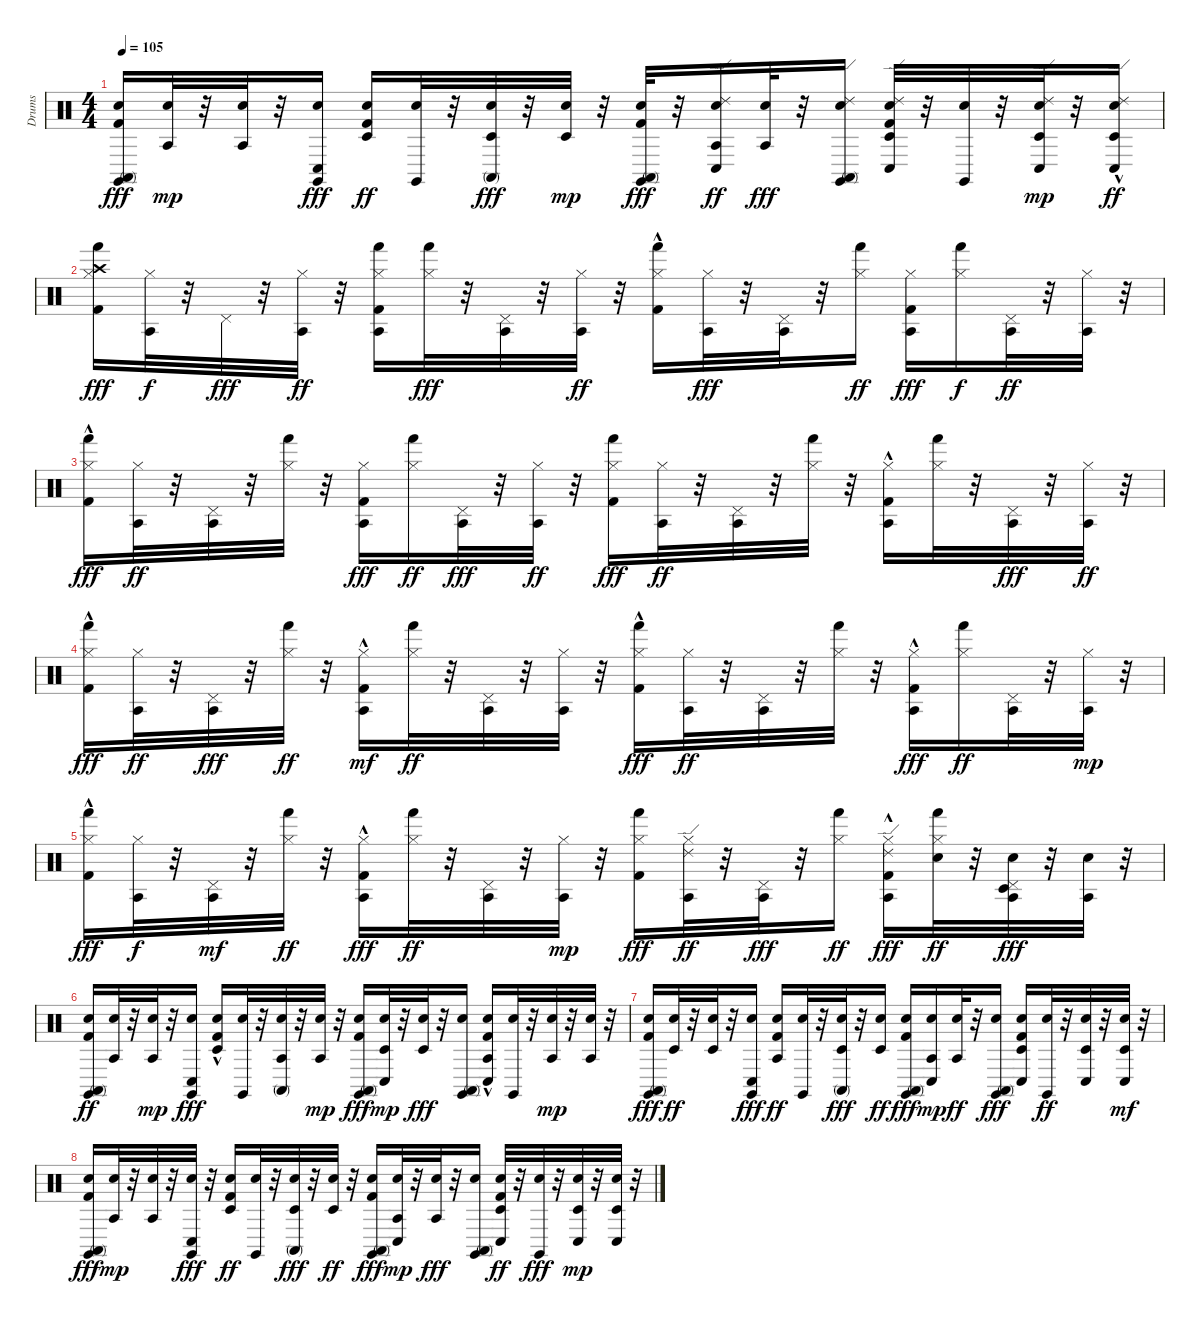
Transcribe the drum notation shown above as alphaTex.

\track ("Drums" "Drums") {instrument percussion}
\staff {score}
\articulation defaults
\ts (4 4)
\tempo 105
\clef neutral
\ks c
("Kick (hit) 2" "Snare (hit) 2" "Conga high (mute)" "Claves (hit)").16{dy fff} ("Agogo tow (hit)" "Snare (hit) 2").32{dy mp} r.32 ("Agogo tow (hit)" "Snare (hit) 2").32 r.32 ("Conga low (hit)" "Snare (hit) 2" "Claves (hit)").16{dy fff} ("Snare (hit) 2" "Kick (hit) 2" "Timbale low (hit)").16{dy ff} ("Snare (hit) 2" "Claves (hit)").32 r.32 ("Conga high (mute)" "Timbale low (hit)" "Snare (hit) 2").32{dy fff} r.32 ("Timbale low (hit)" "Snare (hit) 2").32{dy mp} r.32 ("Snare (hit) 2" "Kick (hit) 2" "Conga high (mute)" "Claves (hit)").32{dy fff} r.32 ("Ride (edge) 2" "Agogo tow (hit)" "Snare (hit) 2" "Conga low (hit)").16{dy ff} ("Agogo tow (hit)" "Snare (hit) 2").32{dy fff} r.32 ("Ride (edge) 2" "Conga high (mute)" "Snare (hit) 2" "Claves (hit)").16 ("Ride (edge) 2" "Timbale low (hit)" "Kick (hit) 2" "Snare (hit) 2" "Conga low (hit)").32 r.32 ("Snare (hit) 2" "Claves (hit)").32 r.32 ("Ride (edge) 2" "Conga low (hit)" "Timbale low (hit)" "Snare (hit) 2").32{dy mp} r.32 ("Ride (edge) 2" "Conga low (hit)" "Snare (hit) 2"{hac} "Timbale low (hit)").16{dy ff} |
("Kick (hit) 2" "Crash high (hit)" "Hi-Hat (closed)" "Hand (hit)").16{dy fff} ("Hi-Hat (closed)" "Agogo tow (hit)").32{dy f} r.32 "Pedal Hi-Hat (hit)".32{dy fff} r.32 ("Agogo tow (hit)" "Hi-Hat (closed)").32{dy ff} r.32 ("Hand (hit)" "Kick (hit) 2" "Hi-Hat (closed)" "Agogo tow (hit)").16 ("Hi-Hat (closed)" "Hand (hit)").32{dy fff} r.32 ("Pedal Hi-Hat (hit)" "Agogo tow (hit)").32 r.32 ("Hi-Hat (closed)" "Agogo tow (hit)").32{dy ff} r.32 ("Hand (hit)" "Kick (hit) 2"{hac} "Hi-Hat (closed)").16 ("Agogo tow (hit)" "Hi-Hat (closed)").32{dy fff} r.32 ("Agogo tow (hit)" "Pedal Hi-Hat (hit)").32 r.32 ("Hand (hit)" "Hi-Hat (closed)").16{dy ff} ("Agogo tow (hit)" "Kick (hit) 2" "Hi-Hat (closed)").16{dy fff} ("Hand (hit)" "Hi-Hat (closed)").16{dy f} ("Agogo tow (hit)" "Pedal Hi-Hat (hit)").32{dy ff} r.32 ("Agogo tow (hit)" "Hi-Hat (closed)").32 r.32 |
("Hand (hit)" "Hi-Hat (closed)" "Kick (hit) 2"{hac}).16{dy fff} ("Agogo tow (hit)" "Hi-Hat (closed)").32{dy ff} r.32 ("Agogo tow (hit)" "Pedal Hi-Hat (hit)").32 r.32 ("Hi-Hat (closed)" "Hand (hit)").32 r.32 ("Agogo tow (hit)" "Hi-Hat (closed)" "Kick (hit) 2").16{dy fff} ("Hand (hit)" "Hi-Hat (closed)").16{dy ff} ("Agogo tow (hit)" "Pedal Hi-Hat (hit)").32{dy fff} r.32 ("Agogo tow (hit)" "Hi-Hat (closed)").32{dy ff} r.32 ("Hand (hit)" "Kick (hit) 2" "Hi-Hat (closed)").16{dy fff} ("Agogo tow (hit)" "Hi-Hat (closed)").32{dy ff} r.32 ("Agogo tow (hit)" "Pedal Hi-Hat (hit)").32 r.32 ("Hi-Hat (closed)" "Hand (hit)").32 r.32 ("Agogo tow (hit)" "Kick (hit) 2"{hac} "Hi-Hat (closed)").16 ("Hand (hit)" "Hi-Hat (closed)").32 r.32 ("Agogo tow (hit)" "Pedal Hi-Hat (hit)").32{dy fff} r.32 ("Agogo tow (hit)" "Hi-Hat (closed)").32{dy ff} r.32 |
("Hand (hit)" "Hi-Hat (closed)" "Kick (hit) 2"{hac}).16{dy fff} ("Agogo tow (hit)" "Hi-Hat (closed)").32{dy ff} r.32 ("Agogo tow (hit)" "Pedal Hi-Hat (hit)").32{dy fff} r.32 ("Hi-Hat (closed)" "Hand (hit)").32{dy ff} r.32 ("Hi-Hat (closed)" "Kick (hit) 2"{hac} "Agogo tow (hit)").16{dy mf} ("Hi-Hat (closed)" "Hand (hit)").32{dy ff} r.32 ("Agogo tow (hit)" "Pedal Hi-Hat (hit)").32 r.32 ("Agogo tow (hit)" "Hi-Hat (closed)").32 r.32 ("Hand (hit)" "Hi-Hat (closed)" "Kick (hit) 2"{hac}).16{dy fff} ("Agogo tow (hit)" "Hi-Hat (closed)").32{dy ff} r.32 ("Agogo tow (hit)" "Pedal Hi-Hat (hit)").32 r.32 ("Hand (hit)" "Hi-Hat (closed)").32 r.32 ("Hi-Hat (closed)" "Kick (hit) 2"{hac} "Agogo tow (hit)").16{dy fff} ("Hand (hit)" "Hi-Hat (closed)").16{dy ff} ("Agogo tow (hit)" "Pedal Hi-Hat (hit)").32 r.32 ("Agogo tow (hit)" "Hi-Hat (closed)").32{dy mp} r.32 |
("Hand (hit)" "Hi-Hat (closed)" "Kick (hit) 2"{hac}).16{dy fff} ("Agogo tow (hit)" "Hi-Hat (closed)").32{dy f} r.32 ("Pedal Hi-Hat (hit)" "Agogo tow (hit)").32{dy mf} r.32 ("Hi-Hat (closed)" "Hand (hit)").32{dy ff} r.32 ("Agogo tow (hit)" "Hi-Hat (closed)" "Kick (hit) 2"{hac}).16{dy fff} ("Hi-Hat (closed)" "Hand (hit)").32{dy ff} r.32 ("Agogo tow (hit)" "Pedal Hi-Hat (hit)").32 r.32 ("Agogo tow (hit)" "Hi-Hat (closed)").32{dy mp} r.32 ("Hand (hit)" "Hi-Hat (closed)" "Kick (hit) 2").16{dy fff} ("Ride (edge) 2" "Agogo tow (hit)" "Hi-Hat (closed)").32{dy ff} r.32 ("Pedal Hi-Hat (hit)" "Agogo tow (hit)").32{dy fff} r.32 ("Hand (hit)" "Hi-Hat (closed)").16{dy ff} ("Ride (edge) 2" "Agogo tow (hit)" "Hi-Hat (closed)" "Kick (hit) 2"{hac}).16{dy fff} ("Hand (hit)" "Snare (hit) 2" "Hi-Hat (closed)").32{dy ff} r.32 ("Timbale low (hit)" "Agogo tow (hit)" "Snare (hit) 2" "Pedal Hi-Hat (hit)").32{dy fff} r.32 ("Agogo tow (hit)" "Snare (hit) 2").32 r.32 |
("Conga high (mute)" "Snare (hit) 2" "Kick (hit) 2" "Claves (hit)").16{dy ff} ("Snare (hit) 2" "Agogo tow (hit)").32 r.32 ("Snare (hit) 2" "Agogo tow (hit)").32{dy mp} r.32 ("Snare (hit) 2" "Conga low (hit)" "Claves (hit)").16{dy fff} ("Timbale low (hit)" "Snare (hit) 2" "Kick (hit) 2"{hac}).16 ("Snare (hit) 2" "Claves (hit)").32 r.32 ("Conga high (mute)" "Agogo tow (hit)" "Snare (hit) 2").32 r.32 ("Agogo tow (hit)" "Snare (hit) 2").32{dy mp} r.32 ("Snare (hit) 2" "Kick (hit) 2" "Conga high (mute)" "Claves (hit)").16{dy fff} ("Snare (hit) 2" "Timbale low (hit)" "Conga low (hit)").32{dy mp} r.32 ("Timbale low (hit)" "Snare (hit) 2").32{dy fff} r.32 ("Conga high (mute)" "Snare (hit) 2" "Claves (hit)").16 ("Conga low (hit)"{hac} "Agogo tow (hit)" "Snare (hit) 2" "Kick (hit) 2").16 ("Snare (hit) 2" "Claves (hit)").32 r.32 ("Agogo tow (hit)" "Snare (hit) 2").32{dy mp} r.32 ("Agogo tow (hit)" "Snare (hit) 2").32 r.32 |
("Conga high (mute)" "Snare (hit) 2" "Kick (hit) 2" "Claves (hit)").16{dy fff} ("Snare (hit) 2" "Timbale low (hit)").32{dy ff} r.32 ("Snare (hit) 2" "Timbale low (hit)").32 r.32 ("Conga low (hit)" "Snare (hit) 2" "Claves (hit)").16{dy fff} ("Snare (hit) 2" "Kick (hit) 2" "Agogo tow (hit)").16{dy ff} ("Snare (hit) 2" "Claves (hit)").32 r.32 ("Conga high (mute)" "Timbale low (hit)" "Snare (hit) 2").32{dy fff} r.32 ("Snare (hit) 2" "Timbale low (hit)").16{dy ff} ("Conga high (mute)" "Snare (hit) 2" "Kick (hit) 2" "Claves (hit)").16{dy fff} ("Conga low (hit)" "Agogo tow (hit)" "Snare (hit) 2").16{dy mp} ("Snare (hit) 2" "Agogo tow (hit)").32{dy ff} r.32 ("Conga high (mute)" "Snare (hit) 2" "Claves (hit)").16{dy fff} ("Timbale low (hit)" "Snare (hit) 2" "Kick (hit) 2" "Conga low (hit)").16 ("Snare (hit) 2" "Claves (hit)").32{dy ff} r.32 ("Timbale low (hit)" "Snare (hit) 2" "Conga low (hit)").32 r.32 ("Timbale low (hit)" "Snare (hit) 2" "Conga low (hit)").32{dy mf} r.32 |
("Kick (hit) 2" "Snare (hit) 2" "Conga high (mute)" "Claves (hit)").16{dy fff} ("Agogo tow (hit)" "Snare (hit) 2").32{dy mp} r.32 ("Agogo tow (hit)" "Snare (hit) 2").32 r.32 ("Conga low (hit)" "Snare (hit) 2" "Claves (hit)").32{dy fff} r.32 ("Snare (hit) 2" "Kick (hit) 2" "Timbale low (hit)").16{dy ff} ("Snare (hit) 2" "Claves (hit)").32 r.32 ("Conga high (mute)" "Timbale low (hit)" "Snare (hit) 2").32{dy fff} r.32 ("Snare (hit) 2" "Timbale low (hit)").32{dy ff} r.32 ("Conga high (mute)" "Snare (hit) 2" "Kick (hit) 2" "Claves (hit)").16{dy fff} ("Conga low (hit)" "Agogo tow (hit)" "Snare (hit) 2").32{dy mp} r.32 ("Agogo tow (hit)" "Snare (hit) 2").32{dy fff} r.32 ("Conga high (mute)" "Snare (hit) 2" "Claves (hit)").16 ("Kick (hit) 2" "Snare (hit) 2" "Timbale low (hit)" "Conga low (hit)").32{dy ff} r.32 ("Snare (hit) 2" "Claves (hit)").32{dy fff} r.32 ("Timbale low (hit)" "Snare (hit) 2" "Conga low (hit)").32{dy mp} r.32 ("Conga low (hit)" "Timbale low (hit)" "Snare (hit) 2").32 r.32
